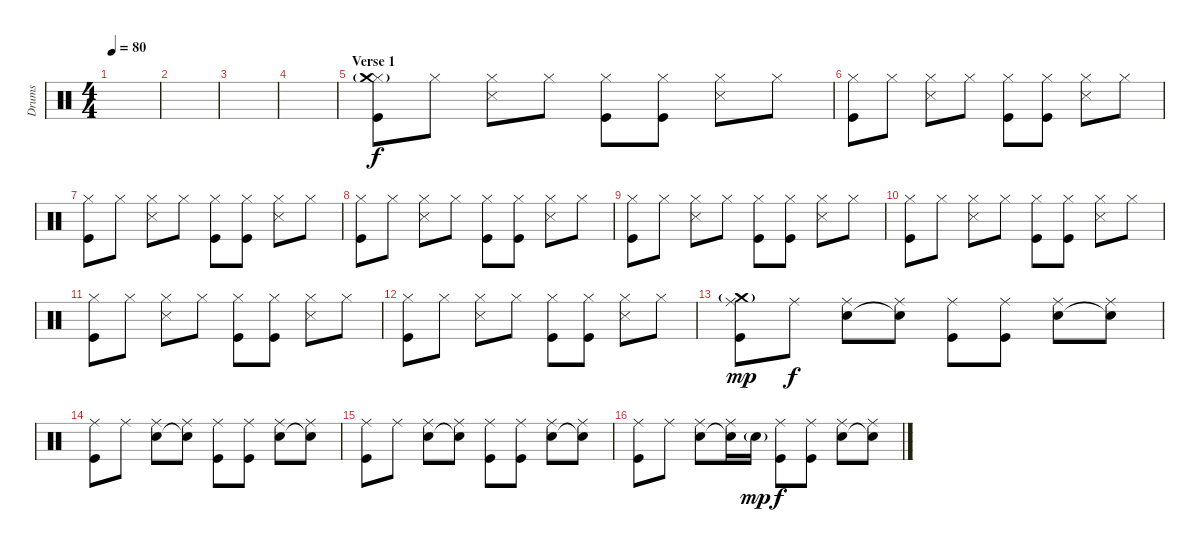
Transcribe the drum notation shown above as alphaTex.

\track ("Drums" "Drums") {instrument percussion}
\staff {score}
\articulation defaults
\ts (4 4)
\tempo 80
\clef neutral
\ks c
|
|
|
|
\section ("" "Verse 1")
("Hi-Hat (closed)" "Crash medium (hit)"{g} "Kick (hit)").8 "Hi-Hat (closed)".8{dy f} ("Hi-Hat (closed)" "Snare (side stick) 3").8 "Hi-Hat (closed)".8 ("Hi-Hat (closed)" "Kick (hit)").8 ("Hi-Hat (closed)" "Kick (hit)").8 ("Hi-Hat (closed)" "Snare (side stick) 3").8 "Hi-Hat (closed)".8 |
("Hi-Hat (closed)" "Kick (hit)").8 "Hi-Hat (closed)".8 ("Hi-Hat (closed)" "Snare (side stick) 3").8 "Hi-Hat (closed)".8 ("Hi-Hat (closed)" "Kick (hit)").8 ("Hi-Hat (closed)" "Kick (hit)").8 ("Hi-Hat (closed)" "Snare (side stick) 3").8 "Hi-Hat (closed)".8 |
("Hi-Hat (closed)" "Kick (hit)").8 "Hi-Hat (closed)".8 ("Hi-Hat (closed)" "Snare (side stick) 3").8 "Hi-Hat (closed)".8 ("Hi-Hat (closed)" "Kick (hit)").8 ("Hi-Hat (closed)" "Kick (hit)").8 ("Hi-Hat (closed)" "Snare (side stick) 3").8 "Hi-Hat (closed)".8 |
("Hi-Hat (closed)" "Kick (hit)").8 "Hi-Hat (closed)".8 ("Hi-Hat (closed)" "Snare (side stick) 3").8 "Hi-Hat (closed)".8 ("Hi-Hat (closed)" "Kick (hit)").8 ("Hi-Hat (closed)" "Kick (hit)").8 ("Hi-Hat (closed)" "Snare (side stick) 3").8 "Hi-Hat (closed)".8 |
("Hi-Hat (closed)" "Kick (hit)").8 "Hi-Hat (closed)".8 ("Hi-Hat (closed)" "Snare (side stick) 3").8 "Hi-Hat (closed)".8 ("Hi-Hat (closed)" "Kick (hit)").8 ("Hi-Hat (closed)" "Kick (hit)").8 ("Hi-Hat (closed)" "Snare (side stick) 3").8 "Hi-Hat (closed)".8 |
("Hi-Hat (closed)" "Kick (hit)").8 "Hi-Hat (closed)".8 ("Hi-Hat (closed)" "Snare (side stick) 3").8 "Hi-Hat (closed)".8 ("Hi-Hat (closed)" "Kick (hit)").8 ("Hi-Hat (closed)" "Kick (hit)").8 ("Hi-Hat (closed)" "Snare (side stick) 3").8 "Hi-Hat (closed)".8 |
("Hi-Hat (closed)" "Kick (hit)").8 "Hi-Hat (closed)".8 ("Hi-Hat (closed)" "Snare (side stick) 3").8 "Hi-Hat (closed)".8 ("Hi-Hat (closed)" "Kick (hit)").8 ("Hi-Hat (closed)" "Kick (hit)").8 ("Hi-Hat (closed)" "Snare (side stick) 3").8 "Hi-Hat (closed)".8 |
("Hi-Hat (closed)" "Kick (hit)").8 "Hi-Hat (closed)".8 ("Hi-Hat (closed)" "Snare (side stick) 3").8 "Hi-Hat (closed)".8 ("Hi-Hat (closed)" "Kick (hit)").8 ("Hi-Hat (closed)" "Kick (hit)").8 ("Hi-Hat (closed)" "Snare (side stick) 3").8 "Hi-Hat (closed)".8 |
\section ("" "")
("Ride (middle)" "Crash medium (hit)"{g} "Kick (hit)").8{dy mp} "Ride (middle)".8{dy f} ("Ride (middle)" "Snare (hit) 2").8 ("Ride (middle)" "Snare (hit)"{t}).8 ("Ride (middle)" "Kick (hit)").8 ("Ride (middle)" "Kick (hit)").8 ("Ride (middle)" "Snare (hit) 2").8 ("Ride (middle)" "Snare (hit)"{t}).8 |
("Ride (middle)" "Kick (hit)").8 "Ride (middle)".8 ("Ride (middle)" "Snare (hit) 2").8 ("Ride (middle)" "Snare (hit)"{t}).8 ("Ride (middle)" "Kick (hit)").8 ("Ride (middle)" "Kick (hit)").8 ("Ride (middle)" "Snare (hit) 2").8 ("Ride (middle)" "Snare (hit)"{t}).8 |
("Ride (middle)" "Kick (hit)").8 "Ride (middle)".8 ("Ride (middle)" "Snare (hit) 2").8 ("Ride (middle)" "Snare (hit)"{t}).8 ("Ride (middle)" "Kick (hit)").8 ("Ride (middle)" "Kick (hit)").8 ("Ride (middle)" "Snare (hit) 2").8 ("Ride (middle)" "Snare (hit)"{t}).8 |
("Ride (middle)" "Kick (hit)").8 "Ride (middle)".8 ("Ride (middle)" "Snare (hit) 2").8 ("Ride (middle)" "Snare (hit)"{t}).16 "Snare (hit) 2"{g}.16{dy mp} ("Ride (middle)" "Kick (hit)").8{dy f} ("Ride (middle)" "Kick (hit)").8 ("Ride (middle)" "Snare (hit) 2").8 ("Ride (middle)" "Snare (hit)"{t}).8
